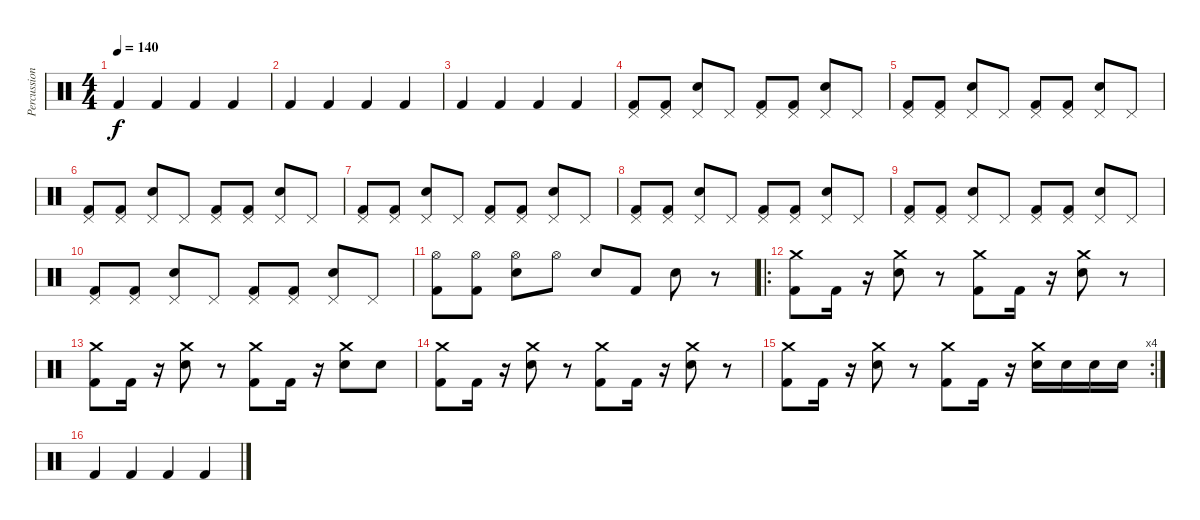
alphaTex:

\track ("Percussion" "Percussion") {instrument percussion}
\staff {score}
\articulation defaults
\ts (4 4)
\tempo 140
\clef neutral
\ks c "Kick (hit) 2".4{dy f} "Kick (hit) 2".4 "Kick (hit) 2".4 "Kick (hit) 2".4
|
"Kick (hit) 2".4 "Kick (hit) 2".4 "Kick (hit) 2".4 "Kick (hit) 2".4 |
"Kick (hit) 2".4 "Kick (hit) 2".4 "Kick (hit) 2".4 "Kick (hit) 2".4 |
("Pedal Hi-Hat (hit)" "Kick (hit) 2").8 ("Pedal Hi-Hat (hit)" "Kick (hit) 2").8 ("Pedal Hi-Hat (hit)" "Snare (hit) 2").8 "Pedal Hi-Hat (hit)".8 ("Pedal Hi-Hat (hit)" "Kick (hit) 2").8 ("Pedal Hi-Hat (hit)" "Kick (hit) 2").8 ("Pedal Hi-Hat (hit)" "Snare (hit) 2").8 "Pedal Hi-Hat (hit)".8 |
("Pedal Hi-Hat (hit)" "Kick (hit) 2").8 ("Pedal Hi-Hat (hit)" "Kick (hit) 2").8 ("Pedal Hi-Hat (hit)" "Snare (hit) 2").8 "Pedal Hi-Hat (hit)".8 ("Pedal Hi-Hat (hit)" "Kick (hit) 2").8 ("Pedal Hi-Hat (hit)" "Kick (hit) 2").8 ("Pedal Hi-Hat (hit)" "Snare (hit) 2").8 "Pedal Hi-Hat (hit)".8 |
("Pedal Hi-Hat (hit)" "Kick (hit) 2").8 ("Pedal Hi-Hat (hit)" "Kick (hit) 2").8 ("Pedal Hi-Hat (hit)" "Snare (hit) 2").8 "Pedal Hi-Hat (hit)".8 ("Pedal Hi-Hat (hit)" "Kick (hit) 2").8 ("Pedal Hi-Hat (hit)" "Kick (hit) 2").8 ("Pedal Hi-Hat (hit)" "Snare (hit) 2").8 "Pedal Hi-Hat (hit)".8 |
("Pedal Hi-Hat (hit)" "Kick (hit) 2").8 ("Pedal Hi-Hat (hit)" "Kick (hit) 2").8 ("Pedal Hi-Hat (hit)" "Snare (hit) 2").8 "Pedal Hi-Hat (hit)".8 ("Pedal Hi-Hat (hit)" "Kick (hit) 2").8 ("Pedal Hi-Hat (hit)" "Kick (hit) 2").8 ("Pedal Hi-Hat (hit)" "Snare (hit) 2").8 "Pedal Hi-Hat (hit)".8 |
("Pedal Hi-Hat (hit)" "Kick (hit) 2").8 ("Pedal Hi-Hat (hit)" "Kick (hit) 2").8 ("Pedal Hi-Hat (hit)" "Snare (hit) 2").8 "Pedal Hi-Hat (hit)".8 ("Pedal Hi-Hat (hit)" "Kick (hit) 2").8 ("Pedal Hi-Hat (hit)" "Kick (hit) 2").8 ("Pedal Hi-Hat (hit)" "Snare (hit) 2").8 "Pedal Hi-Hat (hit)".8 |
("Pedal Hi-Hat (hit)" "Kick (hit) 2").8 ("Pedal Hi-Hat (hit)" "Kick (hit) 2").8 ("Pedal Hi-Hat (hit)" "Snare (hit) 2").8 "Pedal Hi-Hat (hit)".8 ("Pedal Hi-Hat (hit)" "Kick (hit) 2").8 ("Pedal Hi-Hat (hit)" "Kick (hit) 2").8 ("Pedal Hi-Hat (hit)" "Snare (hit) 2").8 "Pedal Hi-Hat (hit)".8 |
("Pedal Hi-Hat (hit)" "Kick (hit) 2").8 ("Pedal Hi-Hat (hit)" "Kick (hit) 2").8 ("Pedal Hi-Hat (hit)" "Snare (hit) 2").8 "Pedal Hi-Hat (hit)".8 ("Pedal Hi-Hat (hit)" "Kick (hit) 2").8 ("Pedal Hi-Hat (hit)" "Kick (hit) 2").8 ("Pedal Hi-Hat (hit)" "Snare (hit) 2").8 "Pedal Hi-Hat (hit)".8 |
("Hi-Hat (open)" "Kick (hit) 2").8 ("Hi-Hat (open)" "Kick (hit) 2").8 ("Hi-Hat (open)" "Snare (hit) 2").8 "Hi-Hat (open)".8 "Snare (hit) 2".8 "Kick (hit) 2".8 "Snare (hit) 2".8 r.8 |
\ro
("Crash medium (hit)" "Kick (hit) 2").8 "Kick (hit) 2".16 r.16 ("Crash medium (hit)" "Snare (hit) 2").8 r.8 ("Crash medium (hit)" "Kick (hit) 2").8 "Kick (hit) 2".16 r.16 ("Crash medium (hit)" "Snare (hit) 2").8 r.8 |
("Crash medium (hit)" "Kick (hit) 2").8 "Kick (hit) 2".16 r.16 ("Crash medium (hit)" "Snare (hit) 2").8 r.8 ("Crash medium (hit)" "Kick (hit) 2").8 "Kick (hit) 2".16 r.16 ("Crash medium (hit)" "Snare (hit) 2").8 "Snare (hit) 2".8 |
("Crash medium (hit)" "Kick (hit) 2").8 "Kick (hit) 2".16 r.16 ("Crash medium (hit)" "Snare (hit) 2").8 r.8 ("Crash medium (hit)" "Kick (hit) 2").8 "Kick (hit) 2".16 r.16 ("Crash medium (hit)" "Snare (hit) 2").8 r.8 |
\rc 4
("Crash medium (hit)" "Kick (hit) 2").8 "Kick (hit) 2".16 r.16 ("Crash medium (hit)" "Snare (hit) 2").8 r.8 ("Crash medium (hit)" "Kick (hit) 2").8 "Kick (hit) 2".16 r.16 ("Crash medium (hit)" "Snare (hit) 2").16 "Snare (hit) 2".16 "Snare (hit) 2".16 "Snare (hit) 2".16 |
"Kick (hit) 2".4 "Kick (hit) 2".4 "Kick (hit) 2".4 "Kick (hit) 2".4
